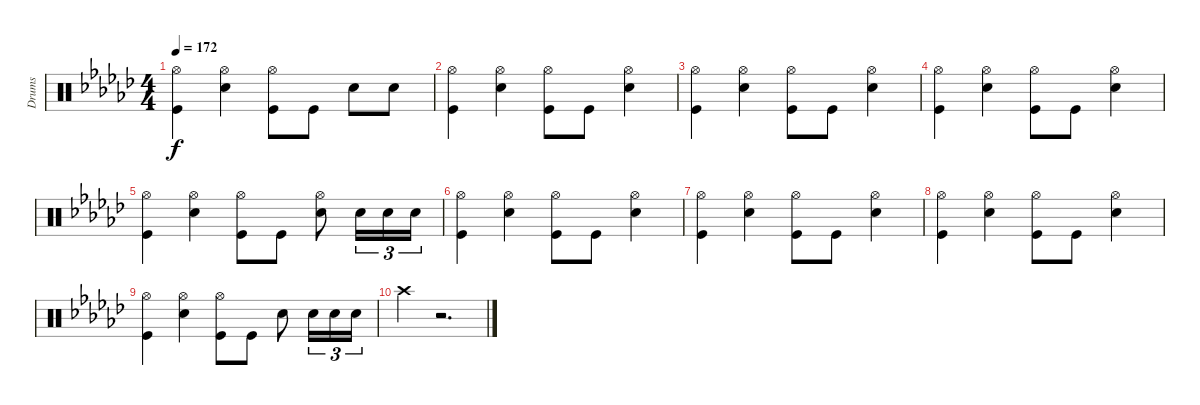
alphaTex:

\track ("Drums" "Drums") {instrument percussion}
\staff {score}
\articulation defaults
\ts (4 4)
\tempo 172
\clef neutral
\ks ebminor
("Hi-Hat (open)" "Kick (hit)").4{dy f} ("Hi-Hat (open)" "Snare (hit) 2").4 ("Hi-Hat (open)" "Kick (hit)").8 "Kick (hit)".8 "Snare (hit) 2".8 "Snare (hit) 2".8 |
("Hi-Hat (open)" "Kick (hit)").4 ("Hi-Hat (open)" "Snare (hit) 2").4 ("Hi-Hat (open)" "Kick (hit)").8 "Kick (hit)".8 ("Hi-Hat (open)" "Snare (hit) 2").4 |
("Hi-Hat (open)" "Kick (hit)").4 ("Hi-Hat (open)" "Snare (hit) 2").4 ("Hi-Hat (open)" "Kick (hit)").8 "Kick (hit)".8 ("Hi-Hat (open)" "Snare (hit) 2").4 |
("Hi-Hat (open)" "Kick (hit)").4 ("Hi-Hat (open)" "Snare (hit) 2").4 ("Hi-Hat (open)" "Kick (hit)").8 "Kick (hit)".8 ("Hi-Hat (open)" "Snare (hit) 2").4 |
("Hi-Hat (open)" "Kick (hit)").4 ("Hi-Hat (open)" "Snare (hit) 2").4 ("Hi-Hat (open)" "Kick (hit)").8 "Kick (hit)".8 ("Hi-Hat (open)" "Snare (hit) 2").8 "Snare (hit) 2".16{tu (3 2)} "Snare (hit) 2".16{tu (3 2)} "Snare (hit) 2".16{tu (3 2)} |
("Hi-Hat (open)" "Kick (hit)").4 ("Hi-Hat (open)" "Snare (hit) 2").4 ("Hi-Hat (open)" "Kick (hit)").8 "Kick (hit)".8 ("Hi-Hat (open)" "Snare (hit) 2").4 |
("Hi-Hat (open)" "Kick (hit)").4 ("Hi-Hat (open)" "Snare (hit) 2").4 ("Hi-Hat (open)" "Kick (hit)").8 "Kick (hit)".8 ("Hi-Hat (open)" "Snare (hit) 2").4 |
("Hi-Hat (open)" "Kick (hit)").4 ("Hi-Hat (open)" "Snare (hit) 2").4 ("Hi-Hat (open)" "Kick (hit)").8 "Kick (hit)".8 ("Hi-Hat (open)" "Snare (hit) 2").4 |
("Hi-Hat (open)" "Kick (hit)").4 ("Hi-Hat (open)" "Snare (hit) 2").4 ("Hi-Hat (open)" "Kick (hit)").8 "Kick (hit)".8 "Snare (hit) 2".8 "Snare (hit) 2".16{tu (3 2)} "Snare (hit) 2".16{tu (3 2)} "Snare (hit) 2".16{tu (3 2)} |
"Crash high (hit)".4 r.2{d}
